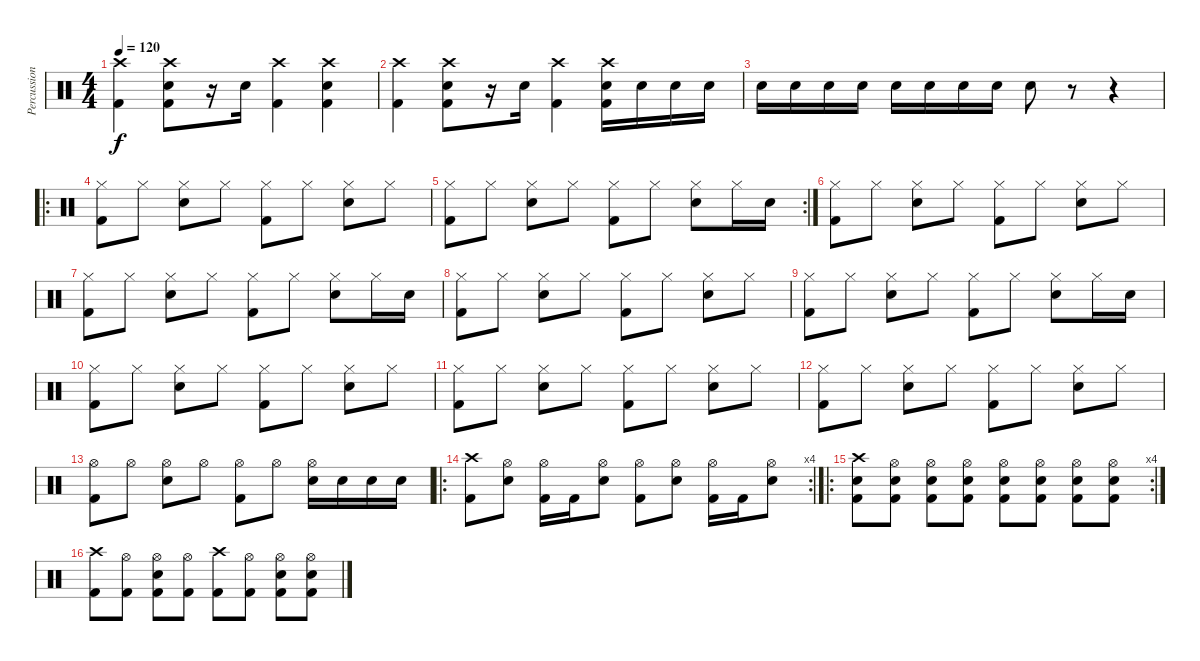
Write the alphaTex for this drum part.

\track ("Percussion" "Percussion") {instrument percussion}
\staff {score}
\articulation defaults
\ts (4 4)
\tempo 120
\clef neutral
\ks c
("Crash high (hit)" "Kick (hit) 2").4{dy f} ("Crash high (hit)" "Electric Snare (hit)" "Kick (hit) 2").8 r.16 "Electric Snare (hit)".16 ("Crash high (hit)" "Kick (hit) 2").4 ("Crash high (hit)" "Electric Snare (hit)" "Kick (hit) 2").4 |
("Crash high (hit)" "Kick (hit) 2").4 ("Crash high (hit)" "Electric Snare (hit)" "Kick (hit) 2").8 r.16 "Electric Snare (hit)".16 ("Crash high (hit)" "Kick (hit) 2").4 ("Crash high (hit)" "Electric Snare (hit)" "Kick (hit) 2").16 "Electric Snare (hit)".16 "Electric Snare (hit)".16 "Electric Snare (hit)".16 |
"Electric Snare (hit)".16 "Electric Snare (hit)".16 "Electric Snare (hit)".16 "Electric Snare (hit)".16 "Electric Snare (hit)".16 "Electric Snare (hit)".16 "Electric Snare (hit)".16 "Electric Snare (hit)".16 "Electric Snare (hit)".8 r.8 r.4 |
\ro
("Hi-Hat (closed)" "Kick (hit) 2").8 "Hi-Hat (closed)".8 ("Hi-Hat (closed)" "Electric Snare (hit)").8 "Hi-Hat (closed)".8 ("Hi-Hat (closed)" "Kick (hit) 2").8 "Hi-Hat (closed)".8 ("Hi-Hat (closed)" "Electric Snare (hit)").8 "Hi-Hat (closed)".8 |
\rc 2
("Hi-Hat (closed)" "Kick (hit) 2").8 "Hi-Hat (closed)".8 ("Hi-Hat (closed)" "Electric Snare (hit)").8 "Hi-Hat (closed)".8 ("Hi-Hat (closed)" "Kick (hit) 2").8 "Hi-Hat (closed)".8 ("Hi-Hat (closed)" "Electric Snare (hit)").8 "Hi-Hat (closed)".16 "Electric Snare (hit)".16 |
("Hi-Hat (closed)" "Kick (hit) 2").8 "Hi-Hat (closed)".8 ("Hi-Hat (closed)" "Electric Snare (hit)").8 "Hi-Hat (closed)".8 ("Hi-Hat (closed)" "Kick (hit) 2").8 "Hi-Hat (closed)".8 ("Hi-Hat (closed)" "Electric Snare (hit)").8 "Hi-Hat (closed)".8 |
("Hi-Hat (closed)" "Kick (hit) 2").8 "Hi-Hat (closed)".8 ("Hi-Hat (closed)" "Electric Snare (hit)").8 "Hi-Hat (closed)".8 ("Hi-Hat (closed)" "Kick (hit) 2").8 "Hi-Hat (closed)".8 ("Hi-Hat (closed)" "Electric Snare (hit)").8 "Hi-Hat (closed)".16 "Electric Snare (hit)".16 |
("Hi-Hat (closed)" "Kick (hit) 2").8 "Hi-Hat (closed)".8 ("Hi-Hat (closed)" "Electric Snare (hit)").8 "Hi-Hat (closed)".8 ("Hi-Hat (closed)" "Kick (hit) 2").8 "Hi-Hat (closed)".8 ("Hi-Hat (closed)" "Electric Snare (hit)").8 "Hi-Hat (closed)".8 |
("Hi-Hat (closed)" "Kick (hit) 2").8 "Hi-Hat (closed)".8 ("Hi-Hat (closed)" "Electric Snare (hit)").8 "Hi-Hat (closed)".8 ("Hi-Hat (closed)" "Kick (hit) 2").8 "Hi-Hat (closed)".8 ("Hi-Hat (closed)" "Electric Snare (hit)").8 "Hi-Hat (closed)".16 "Electric Snare (hit)".16 |
("Hi-Hat (closed)" "Kick (hit) 2").8 "Hi-Hat (closed)".8 ("Hi-Hat (closed)" "Electric Snare (hit)").8 "Hi-Hat (closed)".8 ("Hi-Hat (closed)" "Kick (hit) 2").8 "Hi-Hat (closed)".8 ("Hi-Hat (closed)" "Electric Snare (hit)").8 "Hi-Hat (closed)".8 |
("Hi-Hat (closed)" "Kick (hit) 2").8 "Hi-Hat (closed)".8 ("Hi-Hat (closed)" "Electric Snare (hit)").8 "Hi-Hat (closed)".8 ("Hi-Hat (closed)" "Kick (hit) 2").8 "Hi-Hat (closed)".8 ("Hi-Hat (closed)" "Electric Snare (hit)").8 "Hi-Hat (closed)".8 |
("Hi-Hat (closed)" "Kick (hit) 2").8 "Hi-Hat (closed)".8 ("Hi-Hat (closed)" "Electric Snare (hit)").8 "Hi-Hat (closed)".8 ("Hi-Hat (closed)" "Kick (hit) 2").8 "Hi-Hat (closed)".8 ("Hi-Hat (closed)" "Electric Snare (hit)").8 "Hi-Hat (closed)".8 |
("Hi-Hat (open)" "Kick (hit) 2").8 "Hi-Hat (open)".8 ("Hi-Hat (open)" "Electric Snare (hit)").8 "Hi-Hat (open)".8 ("Hi-Hat (open)" "Kick (hit) 2").8 "Hi-Hat (open)".8 ("Hi-Hat (open)" "Electric Snare (hit)").16 "Electric Snare (hit)".16 "Electric Snare (hit)".16 "Electric Snare (hit)".16 |
\ro
\rc 4
("Crash high (hit)" "Kick (hit) 2").8 ("Hi-Hat (open)" "Electric Snare (hit)").8 ("Hi-Hat (open)" "Kick (hit) 2").16 "Kick (hit) 2".16 ("Hi-Hat (open)" "Electric Snare (hit)").8 ("Hi-Hat (open)" "Kick (hit) 2").8 ("Hi-Hat (open)" "Electric Snare (hit)").8 ("Hi-Hat (open)" "Kick (hit) 2").16 "Kick (hit) 2".16 ("Hi-Hat (open)" "Electric Snare (hit)").8 |
\ro
\rc 4
("Crash high (hit)" "Electric Snare (hit)" "Kick (hit) 2").8 ("Hi-Hat (open)" "Electric Snare (hit)" "Kick (hit) 2").8 ("Hi-Hat (open)" "Electric Snare (hit)" "Kick (hit) 2").8 ("Hi-Hat (open)" "Electric Snare (hit)" "Kick (hit) 2").8 ("Hi-Hat (open)" "Electric Snare (hit)" "Kick (hit) 2").8 ("Hi-Hat (open)" "Electric Snare (hit)" "Kick (hit) 2").8 ("Hi-Hat (open)" "Electric Snare (hit)" "Kick (hit) 2").8 ("Hi-Hat (open)" "Electric Snare (hit)" "Kick (hit) 2").8 |
("Crash high (hit)" "Kick (hit) 2").8 ("Hi-Hat (open)" "Kick (hit) 2").8 ("Hi-Hat (open)" "Electric Snare (hit)" "Kick (hit) 2").8 ("Hi-Hat (open)" "Kick (hit) 2").8 ("Crash high (hit)" "Kick (hit) 2").8 ("Hi-Hat (open)" "Kick (hit) 2").8 ("Hi-Hat (open)" "Electric Snare (hit)" "Kick (hit) 2").8 ("Hi-Hat (open)" "Electric Snare (hit)" "Kick (hit) 2").8
